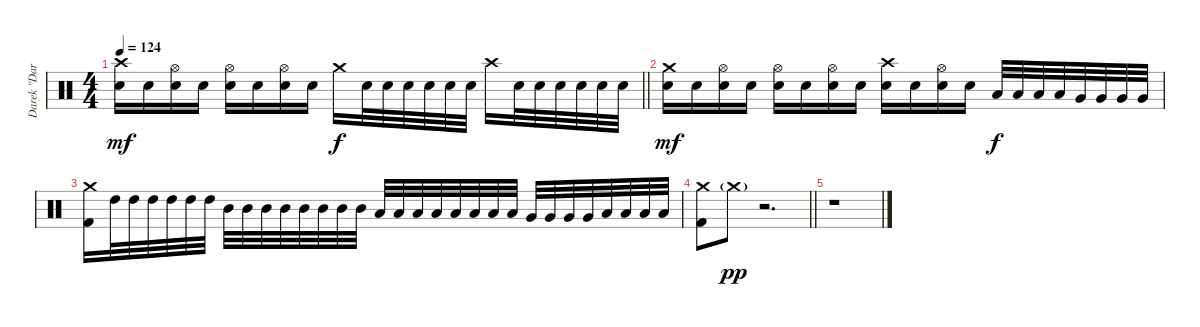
\track ("Darek \"Daray\" Brzozowski " "Darek \"Dar") {instrument percussion}
\staff {score}
\articulation defaults
\ts (4 4)
\tempo 124
\clef neutral
\barLineRight lightlight
\ks c
("Crash high (hit)" "Electric Snare (hit)").16{dy mf} "Electric Snare (hit)".16 ("Hi-Hat (open)" "Electric Snare (hit)").16 "Electric Snare (hit)".16 ("Hi-Hat (open)" "Electric Snare (hit)").16 "Electric Snare (hit)".16 ("Hi-Hat (open)" "Electric Snare (hit)").16 "Electric Snare (hit)".16 "Crash medium (hit)".16{dy f} "Electric Snare (hit)".32 "Electric Snare (hit)".32 "Electric Snare (hit)".32 "Electric Snare (hit)".32 "Electric Snare (hit)".32 "Electric Snare (hit)".32 "Crash high (hit)".16 "Electric Snare (hit)".32 "Electric Snare (hit)".32 "Electric Snare (hit)".32 "Electric Snare (hit)".32 "Electric Snare (hit)".32 "Electric Snare (hit)".32 |
("Crash medium (hit)" "Electric Snare (hit)").16{dy mf} "Electric Snare (hit)".16 ("Hi-Hat (open)" "Electric Snare (hit)").16 "Electric Snare (hit)".16 ("Hi-Hat (open)" "Electric Snare (hit)").16 "Electric Snare (hit)".16 ("Hi-Hat (open)" "Electric Snare (hit)").16 "Electric Snare (hit)".16 ("Crash high (hit)" "Electric Snare (hit)").16 "Electric Snare (hit)".16 ("Hi-Hat (open)" "Electric Snare (hit)").16 "Electric Snare (hit)".16 "Low Tom (hit)".32{dy f} "Low Tom (hit)".32 "Low Tom (hit)".32 "Low Tom (hit)".32 "Very Low Tom (hit)".32 "Very Low Tom (hit)".32 "Very Low Tom (hit)".32 "Very Low Tom (hit)".32 |
("Crash medium (hit)" "Kick (hit) 2").16 "High Tom (hit)".32 "High Tom (hit)".32 "High Tom (hit)".32 "High Tom (hit)".32 "High Tom (hit)".32 "High Tom (hit)".32 "Mid Tom (hit)".32 "Mid Tom (hit)".32 "Mid Tom (hit)".32 "Mid Tom (hit)".32 "Mid Tom (hit)".32 "Mid Tom (hit)".32 "Mid Tom (hit)".32 "Mid Tom (hit)".32 "Low Tom (hit)".32 "Low Tom (hit)".32 "Low Tom (hit)".32 "Low Tom (hit)".32 "Low Tom (hit)".32 "Low Tom (hit)".32 "Low Tom (hit)".32 "Low Tom (hit)".32 "Very Low Tom (hit)".32 "Very Low Tom (hit)".32 "Very Low Tom (hit)".32 "Very Low Tom (hit)".32 "Low Floor Tom (hit)".32 "Low Floor Tom (hit)".32 "Low Floor Tom (hit)".32 "Low Floor Tom (hit)".32 |
\barLineRight lightlight
("Crash medium (hit)" "Kick (hit) 2").8 "Crash medium (hit)"{g}.8{dy pp} r.2{d} |
r.1
